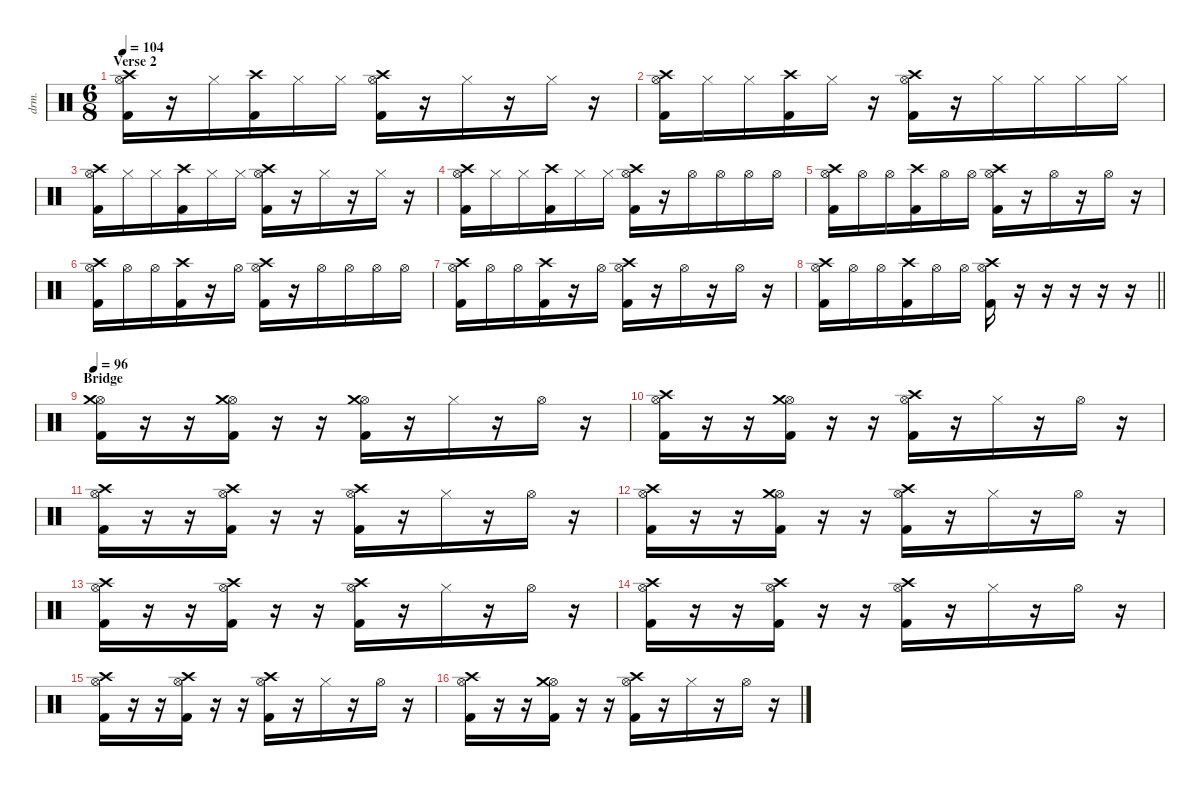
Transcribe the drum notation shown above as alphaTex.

\defaultSystemsLayout 4
\hideDynamics
\bracketExtendMode nobrackets
\otherSystemsTrackNameOrientation horizontal
\track ("Gene Hoglan" "drm.") {instrument percussion}
\staff {score}
\articulation defaults
\ts (6 8)
\section ("" "Verse 2")
\tempo 104
\clef neutral
\ks c
("Hi-Hat (open)" "Crash high (hit)" "Kick (hit) 2").16{dy f beam Down} r.16{beam Down} "Hi-Hat (closed)".16{beam Down} ("Crash high (hit)" "Kick (hit) 2").16{beam Down} "Hi-Hat (closed)".16{beam Down} "Hi-Hat (closed)".16{beam Down} ("Hi-Hat (open)" "Crash high (hit)" "Kick (hit) 2").16{beam Down} r.16{beam Down} "Hi-Hat (closed)".16{beam Down} r.16{beam Down} "Hi-Hat (closed)".16{beam Down} r.16{beam Down} |
("Hi-Hat (open)" "Crash high (hit)" "Kick (hit) 2").16{beam Down} "Hi-Hat (closed)".16{beam Down} "Hi-Hat (closed)".16{beam Down} ("Crash high (hit)" "Kick (hit) 2").16{beam Down} "Hi-Hat (closed)".16{beam Down} r.16{beam Down} ("Hi-Hat (open)" "Crash high (hit)" "Kick (hit) 2").16{beam Down} r.16{beam Down} "Hi-Hat (closed)".16{beam Down} "Hi-Hat (closed)".16{beam Down} "Hi-Hat (closed)".16{beam Down} "Hi-Hat (closed)".16{beam Down} |
("Hi-Hat (open)" "Crash high (hit)" "Kick (hit) 2").16{beam Down} "Hi-Hat (closed)".16{beam Down} "Hi-Hat (closed)".16{beam Down} ("Crash high (hit)" "Kick (hit) 2").16{beam Down} "Hi-Hat (closed)".16{beam Down} "Hi-Hat (closed)".16{beam Down} ("Hi-Hat (open)" "Crash high (hit)" "Kick (hit) 2").16{beam Down} r.16{beam Down} "Hi-Hat (closed)".16{beam Down} r.16{beam Down} "Hi-Hat (closed)".16{beam Down} r.16{beam Down} |
("Hi-Hat (open)" "Crash high (hit)" "Kick (hit) 2").16{beam Down} "Hi-Hat (closed)".16{beam Down} "Hi-Hat (closed)".16{beam Down} ("Crash high (hit)" "Kick (hit) 2").16{beam Down} "Hi-Hat (closed)".16{beam Down} "Hi-Hat (closed)".16{beam Down} ("Hi-Hat (open)" "Crash high (hit)" "Kick (hit) 2").16{beam Down} r.16{beam Down} "Hi-Hat (open)".16{beam Down} "Hi-Hat (open)".16{beam Down} "Hi-Hat (open)".16{beam Down} "Hi-Hat (open)".16{beam Down} |
("Hi-Hat (open)" "Crash high (hit)" "Kick (hit) 2").16{beam Down} "Hi-Hat (open)".16{beam Down} "Hi-Hat (open)".16{beam Down} ("Crash high (hit)" "Kick (hit) 2").16{beam Down} "Hi-Hat (open)".16{beam Down} "Hi-Hat (open)".16{beam Down} ("Hi-Hat (open)" "Crash high (hit)" "Kick (hit) 2").16{beam Down} r.16{beam Down} "Hi-Hat (open)".16{beam Down} r.16{beam Down} "Hi-Hat (open)".16{beam Down} r.16{beam Down} |
("Hi-Hat (open)" "Crash high (hit)" "Kick (hit) 2").16{beam Down} "Hi-Hat (open)".16{beam Down} "Hi-Hat (open)".16{beam Down} ("Crash high (hit)" "Kick (hit) 2").16{beam Down} r.16{beam Down} "Hi-Hat (open)".16{beam Down} ("Hi-Hat (open)" "Crash high (hit)" "Kick (hit) 2").16{beam Down} r.16{beam Down} "Hi-Hat (open)".16{beam Down} "Hi-Hat (open)".16{beam Down} "Hi-Hat (open)".16{beam Down} "Hi-Hat (open)".16{beam Down} |
("Hi-Hat (open)" "Crash high (hit)" "Kick (hit) 2").16{beam Down} "Hi-Hat (open)".16{beam Down} "Hi-Hat (open)".16{beam Down} ("Crash high (hit)" "Kick (hit) 2").16{beam Down} r.16{beam Down} "Hi-Hat (open)".16{beam Down} ("Hi-Hat (open)" "Crash high (hit)" "Kick (hit) 2").16{beam Down} r.16{beam Down} "Hi-Hat (open)".16{beam Down} r.16{beam Down} "Hi-Hat (open)".16{beam Down} r.16{beam Down} |
\barLineRight lightlight
("Hi-Hat (open)" "Crash high (hit)" "Kick (hit) 2").16{beam Down} "Hi-Hat (open)".16{beam Down} "Hi-Hat (open)".16{beam Down} ("Crash high (hit)" "Kick (hit) 2").16{beam Down} "Hi-Hat (open)".16{beam Down} "Hi-Hat (open)".16{beam Down} ("Hi-Hat (open)" "Crash high (hit)" "Kick (hit) 2").16{beam Down} r.16{beam Down} r.16{beam Down} r.16{beam Down} r.16{beam Down} r.16{beam Down} |
\section ("" "Bridge")
\tempo 96
("Hi-Hat (open)" "Crash medium (hit)" "Kick (hit) 2").16{beam Down} r.16{beam Down} r.16{beam Down} ("Hi-Hat (open)" "Crash medium (hit)" "Kick (hit) 2").16{beam Down} r.16{beam Down} r.16{beam Down} ("Hi-Hat (open)" "Crash medium (hit)" "Kick (hit) 2").16{beam Down} r.16{beam Down} "Hi-Hat (closed)".16{beam Down} r.16{beam Down} "Hi-Hat (open)".16{beam Down} r.16{beam Down} |
("Hi-Hat (open)" "Crash high (hit)" "Kick (hit) 2").16{beam Down} r.16{beam Down} r.16{beam Down} ("Hi-Hat (open)" "Crash medium (hit)" "Kick (hit) 2").16{beam Down} r.16{beam Down} r.16{beam Down} ("Hi-Hat (open)" "Crash high (hit)" "Kick (hit) 2").16{beam Down} r.16{beam Down} "Hi-Hat (closed)".16{beam Down} r.16{beam Down} "Hi-Hat (open)".16{beam Down} r.16{beam Down} |
("Hi-Hat (open)" "Crash high (hit)" "Kick (hit) 2").16{beam Down} r.16{beam Down} r.16{beam Down} ("Hi-Hat (open)" "Crash high (hit)" "Kick (hit) 2").16{beam Down} r.16{beam Down} r.16{beam Down} ("Hi-Hat (open)" "Crash high (hit)" "Kick (hit) 2").16{beam Down} r.16{beam Down} "Hi-Hat (closed)".16{beam Down} r.16{beam Down} "Hi-Hat (open)".16{beam Down} r.16{beam Down} |
("Hi-Hat (open)" "Crash high (hit)" "Kick (hit) 2").16{beam Down} r.16{beam Down} r.16{beam Down} ("Hi-Hat (open)" "Crash medium (hit)" "Kick (hit) 2").16{beam Down} r.16{beam Down} r.16{beam Down} ("Hi-Hat (open)" "Crash high (hit)" "Kick (hit) 2").16{beam Down} r.16{beam Down} "Hi-Hat (closed)".16{beam Down} r.16{beam Down} "Hi-Hat (open)".16{beam Down} r.16{beam Down} |
("Hi-Hat (open)" "Crash high (hit)" "Kick (hit) 2").16{beam Down} r.16{beam Down} r.16{beam Down} ("Hi-Hat (open)" "Crash high (hit)" "Kick (hit) 2").16{beam Down} r.16{beam Down} r.16{beam Down} ("Hi-Hat (open)" "Crash high (hit)" "Kick (hit) 2").16{beam Down} r.16{beam Down} "Hi-Hat (closed)".16{beam Down} r.16{beam Down} "Hi-Hat (open)".16{beam Down} r.16{beam Down} |
("Hi-Hat (open)" "Crash high (hit)" "Kick (hit) 2").16{beam Down} r.16{beam Down} r.16{beam Down} ("Hi-Hat (open)" "Crash high (hit)" "Kick (hit) 2").16{beam Down} r.16{beam Down} r.16{beam Down} ("Hi-Hat (open)" "Crash high (hit)" "Kick (hit) 2").16{beam Down} r.16{beam Down} "Hi-Hat (closed)".16{beam Down} r.16{beam Down} "Hi-Hat (open)".16{beam Down} r.16{beam Down} |
("Hi-Hat (open)" "Crash high (hit)" "Kick (hit) 2").16{beam Down} r.16{beam Down} r.16{beam Down} ("Hi-Hat (open)" "Crash high (hit)" "Kick (hit) 2").16{beam Down} r.16{beam Down} r.16{beam Down} ("Hi-Hat (open)" "Crash high (hit)" "Kick (hit) 2").16{beam Down} r.16{beam Down} "Hi-Hat (closed)".16{beam Down} r.16{beam Down} "Hi-Hat (open)".16{beam Down} r.16{beam Down} |
("Hi-Hat (open)" "Crash high (hit)" "Kick (hit) 2").16{beam Down} r.16{beam Down} r.16{beam Down} ("Hi-Hat (open)" "Crash medium (hit)" "Kick (hit) 2").16{beam Down} r.16{beam Down} r.16{beam Down} ("Hi-Hat (open)" "Crash high (hit)" "Kick (hit) 2").16{beam Down} r.16{beam Down} "Hi-Hat (closed)".16{beam Down} r.16{beam Down} "Hi-Hat (open)".16{beam Down} r.16{beam Down}
